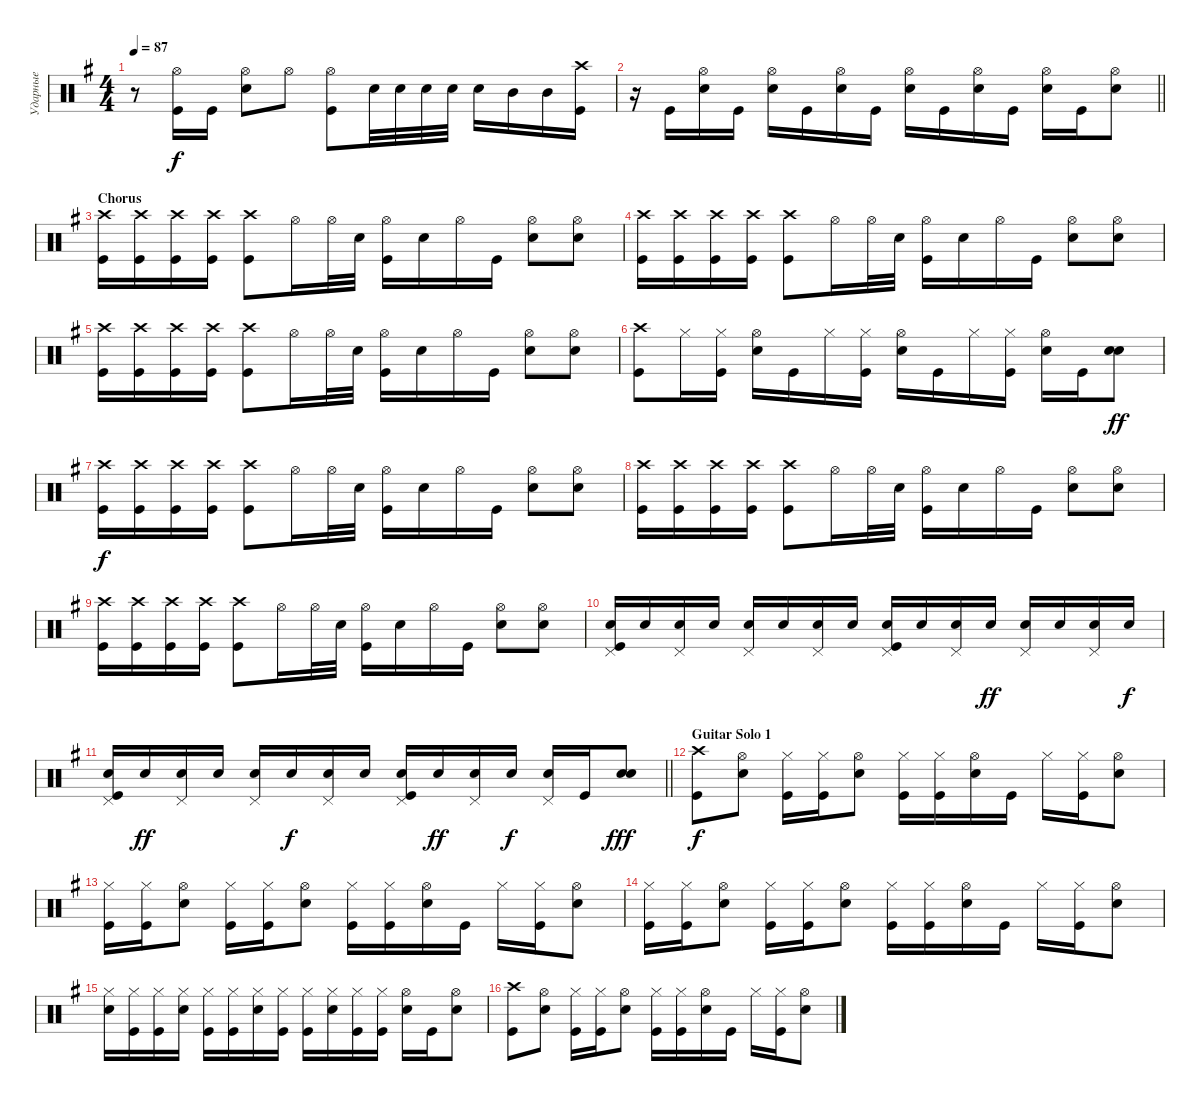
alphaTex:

\track ("Ударные" "Ударные") {instrument percussion}
\staff {score}
\articulation defaults
\ts (4 4)
\tempo 87
\clef neutral
\ks eminor
r.8{dy f} ("Kick (hit)" "Hi-Hat (open)").16 "Kick (hit)".16 ("Snare (hit) 2" "Hi-Hat (open)").8 "Hi-Hat (open)".8 ("Kick (hit)" "Hi-Hat (open)").8 "Snare (hit) 2".32 "Snare (hit) 2".32 "Snare (hit) 2".32 "Snare (hit) 2".32 "Snare (hit) 2".16 "Mid Tom (hit)".16 "Mid Tom (hit)".16 ("Kick (hit)" "Crash high (hit)").16 |
\barLineRight lightlight
r.16 "Kick (hit)".16 ("Snare (hit) 2" "Hi-Hat (open)").16 "Kick (hit)".16 ("Snare (hit) 2" "Hi-Hat (open)").16 "Kick (hit)".16 ("Snare (hit) 2" "Hi-Hat (open)").16 "Kick (hit)".16 ("Snare (hit) 2" "Hi-Hat (open)").16 "Kick (hit)".16 ("Snare (hit) 2" "Hi-Hat (open)").16 "Kick (hit)".16 ("Snare (hit) 2" "Hi-Hat (open)").16 "Kick (hit)".16 ("Snare (hit) 2" "Hi-Hat (open)").8 |
\section ("" "Chorus")
("Kick (hit)" "Crash high (hit)").16 ("Kick (hit)" "Crash high (hit)").16 ("Kick (hit)" "Crash high (hit)").16 ("Kick (hit)" "Crash high (hit)").16 ("Kick (hit)" "Crash high (hit)").8 "Hi-Hat (open)".16 "Hi-Hat (open)".32 "Snare (hit) 2".32 ("Kick (hit)" "Hi-Hat (open)").16 "Snare (hit) 2".16 "Hi-Hat (open)".16 "Kick (hit)".16 ("Snare (hit) 2" "Hi-Hat (open)").8 ("Snare (hit) 2" "Hi-Hat (open)").8 |
("Kick (hit)" "Crash high (hit)").16 ("Kick (hit)" "Crash high (hit)").16 ("Kick (hit)" "Crash high (hit)").16 ("Kick (hit)" "Crash high (hit)").16 ("Kick (hit)" "Crash high (hit)").8 "Hi-Hat (open)".16 "Hi-Hat (open)".32 "Snare (hit) 2".32 ("Kick (hit)" "Hi-Hat (open)").16 "Snare (hit) 2".16 "Hi-Hat (open)".16 "Kick (hit)".16 ("Snare (hit) 2" "Hi-Hat (open)").8 ("Snare (hit) 2" "Hi-Hat (open)").8 |
("Kick (hit)" "Crash high (hit)").16 ("Kick (hit)" "Crash high (hit)").16 ("Kick (hit)" "Crash high (hit)").16 ("Kick (hit)" "Crash high (hit)").16 ("Kick (hit)" "Crash high (hit)").8 "Hi-Hat (open)".16 "Hi-Hat (open)".32 "Snare (hit) 2".32 ("Kick (hit)" "Hi-Hat (open)").16 "Snare (hit) 2".16 "Hi-Hat (open)".16 "Kick (hit)".16 ("Snare (hit) 2" "Hi-Hat (open)").8 ("Snare (hit) 2" "Hi-Hat (open)").8 |
("Kick (hit)" "Crash high (hit)").8 "Hi-Hat (closed)".16 ("Kick (hit)" "Hi-Hat (closed)").16 ("Snare (hit) 2" "Hi-Hat (open)").16 "Kick (hit)".16 "Hi-Hat (closed)".16 ("Kick (hit)" "Hi-Hat (closed)").16 ("Snare (hit) 2" "Hi-Hat (open)").16 "Kick (hit)".16 "Hi-Hat (closed)".16 ("Kick (hit)" "Hi-Hat (closed)").16 ("Snare (hit) 2" "Hi-Hat (open)").16 "Kick (hit)".16 ("Snare (hit) 2" "Snare (hit) 2").8{bd 240 dy ff} |
("Kick (hit)" "Crash high (hit)").16{dy f} ("Kick (hit)" "Crash high (hit)").16 ("Kick (hit)" "Crash high (hit)").16 ("Kick (hit)" "Crash high (hit)").16 ("Kick (hit)" "Crash high (hit)").8 "Hi-Hat (open)".16 "Hi-Hat (open)".32 "Snare (hit) 2".32 ("Kick (hit)" "Hi-Hat (open)").16 "Snare (hit) 2".16 "Hi-Hat (open)".16 "Kick (hit)".16 ("Snare (hit) 2" "Hi-Hat (open)").8 ("Snare (hit) 2" "Hi-Hat (open)").8 |
("Kick (hit)" "Crash high (hit)").16 ("Kick (hit)" "Crash high (hit)").16 ("Kick (hit)" "Crash high (hit)").16 ("Kick (hit)" "Crash high (hit)").16 ("Kick (hit)" "Crash high (hit)").8 "Hi-Hat (open)".16 "Hi-Hat (open)".32 "Snare (hit) 2".32 ("Kick (hit)" "Hi-Hat (open)").16 "Snare (hit) 2".16 "Hi-Hat (open)".16 "Kick (hit)".16 ("Snare (hit) 2" "Hi-Hat (open)").8 ("Snare (hit) 2" "Hi-Hat (open)").8 |
("Kick (hit)" "Crash high (hit)").16 ("Kick (hit)" "Crash high (hit)").16 ("Kick (hit)" "Crash high (hit)").16 ("Kick (hit)" "Crash high (hit)").16 ("Kick (hit)" "Crash high (hit)").8 "Hi-Hat (open)".16 "Hi-Hat (open)".32 "Snare (hit) 2".32 ("Kick (hit)" "Hi-Hat (open)").16 "Snare (hit) 2".16 "Hi-Hat (open)".16 "Kick (hit)".16 ("Snare (hit) 2" "Hi-Hat (open)").8 ("Snare (hit) 2" "Hi-Hat (open)").8 |
("Snare (hit) 2" "Kick (hit)" "Pedal Hi-Hat (hit)").16 "Snare (hit) 2".16 ("Snare (hit) 2" "Pedal Hi-Hat (hit)").16 "Snare (hit) 2".16 ("Snare (hit) 2" "Pedal Hi-Hat (hit)").16 "Snare (hit) 2".16 ("Pedal Hi-Hat (hit)" "Snare (hit) 2").16 "Snare (hit) 2".16 ("Snare (hit) 2" "Kick (hit)" "Pedal Hi-Hat (hit)").16 "Snare (hit) 2".16 ("Snare (hit) 2" "Pedal Hi-Hat (hit)").16 "Snare (hit) 2".16{dy ff} ("Snare (hit) 2" "Pedal Hi-Hat (hit)").16 "Snare (hit) 2".16 ("Snare (hit) 2" "Pedal Hi-Hat (hit)").16 "Snare (hit) 2".16{dy f} |
\barLineRight lightlight
("Snare (hit) 2" "Kick (hit)" "Pedal Hi-Hat (hit)").16 "Snare (hit) 2".16{dy ff} ("Snare (hit) 2" "Pedal Hi-Hat (hit)").16 "Snare (hit) 2".16 ("Snare (hit) 2" "Pedal Hi-Hat (hit)").16 "Snare (hit) 2".16{dy f} ("Pedal Hi-Hat (hit)" "Snare (hit) 2").16 "Snare (hit) 2".16 ("Snare (hit) 2" "Kick (hit)" "Pedal Hi-Hat (hit)").16 "Snare (hit) 2".16{dy ff} ("Snare (hit) 2" "Pedal Hi-Hat (hit)").16 "Snare (hit) 2".16{dy f} ("Snare (hit) 2" "Pedal Hi-Hat (hit)").16 "Kick (hit)".16 ("Snare (hit) 2" "Snare (hit) 2").8{bd 480 dy fff} |
\section ("" "Guitar Solo 1")
("Kick (hit)" "Crash high (hit)").8{dy f} ("Snare (hit) 2" "Hi-Hat (open)").8 ("Kick (hit)" "Hi-Hat (closed)").16 ("Kick (hit)" "Hi-Hat (closed)").16 ("Snare (hit) 2" "Hi-Hat (open)").8 ("Kick (hit)" "Hi-Hat (closed)").16 ("Kick (hit)" "Hi-Hat (closed)").16 ("Snare (hit) 2" "Hi-Hat (open)").16 "Kick (hit)".16 "Hi-Hat (closed)".16 ("Kick (hit)" "Hi-Hat (closed)").16 ("Snare (hit) 2" "Hi-Hat (open)").8 |
("Kick (hit)" "Hi-Hat (closed)").16 ("Kick (hit)" "Hi-Hat (closed)").16 ("Snare (hit) 2" "Hi-Hat (open)").8 ("Kick (hit)" "Hi-Hat (closed)").16 ("Kick (hit)" "Hi-Hat (closed)").16 ("Snare (hit) 2" "Hi-Hat (open)").8 ("Kick (hit)" "Hi-Hat (closed)").16 ("Kick (hit)" "Hi-Hat (closed)").16 ("Snare (hit) 2" "Hi-Hat (open)").16 "Kick (hit)".16 "Hi-Hat (closed)".16 ("Kick (hit)" "Hi-Hat (closed)").16 ("Snare (hit) 2" "Hi-Hat (open)").8 |
("Kick (hit)" "Hi-Hat (closed)").16 ("Kick (hit)" "Hi-Hat (closed)").16 ("Snare (hit) 2" "Hi-Hat (open)").8 ("Kick (hit)" "Hi-Hat (closed)").16 ("Kick (hit)" "Hi-Hat (closed)").16 ("Snare (hit) 2" "Hi-Hat (open)").8 ("Kick (hit)" "Hi-Hat (closed)").16 ("Kick (hit)" "Hi-Hat (closed)").16 ("Snare (hit) 2" "Hi-Hat (open)").16 "Kick (hit)".16 "Hi-Hat (closed)".16 ("Kick (hit)" "Hi-Hat (closed)").16 ("Snare (hit) 2" "Hi-Hat (open)").8 |
("Snare (hit) 2" "Hi-Hat (closed)").16 ("Kick (hit)" "Hi-Hat (closed)").16 ("Kick (hit)" "Hi-Hat (closed)").16 ("Snare (hit) 2" "Hi-Hat (closed)").16 ("Kick (hit)" "Hi-Hat (closed)").16 ("Kick (hit)" "Hi-Hat (closed)").16 ("Snare (hit) 2" "Hi-Hat (closed)").16 ("Kick (hit)" "Hi-Hat (closed)").16 ("Kick (hit)" "Hi-Hat (closed)").16 ("Snare (hit) 2" "Hi-Hat (closed)").16 ("Kick (hit)" "Hi-Hat (closed)").16 ("Kick (hit)" "Hi-Hat (closed)").16 ("Snare (hit) 2" "Hi-Hat (open)").16 "Kick (hit)".16 ("Snare (hit) 2" "Hi-Hat (open)").8 |
("Kick (hit)" "Crash high (hit)").8 ("Snare (hit) 2" "Hi-Hat (open)").8 ("Kick (hit)" "Hi-Hat (closed)").16 ("Kick (hit)" "Hi-Hat (closed)").16 ("Snare (hit) 2" "Hi-Hat (open)").8 ("Kick (hit)" "Hi-Hat (closed)").16 ("Kick (hit)" "Hi-Hat (closed)").16 ("Snare (hit) 2" "Hi-Hat (open)").16 "Kick (hit)".16 "Hi-Hat (closed)".16 ("Kick (hit)" "Hi-Hat (closed)").16 ("Snare (hit) 2" "Hi-Hat (open)").8
